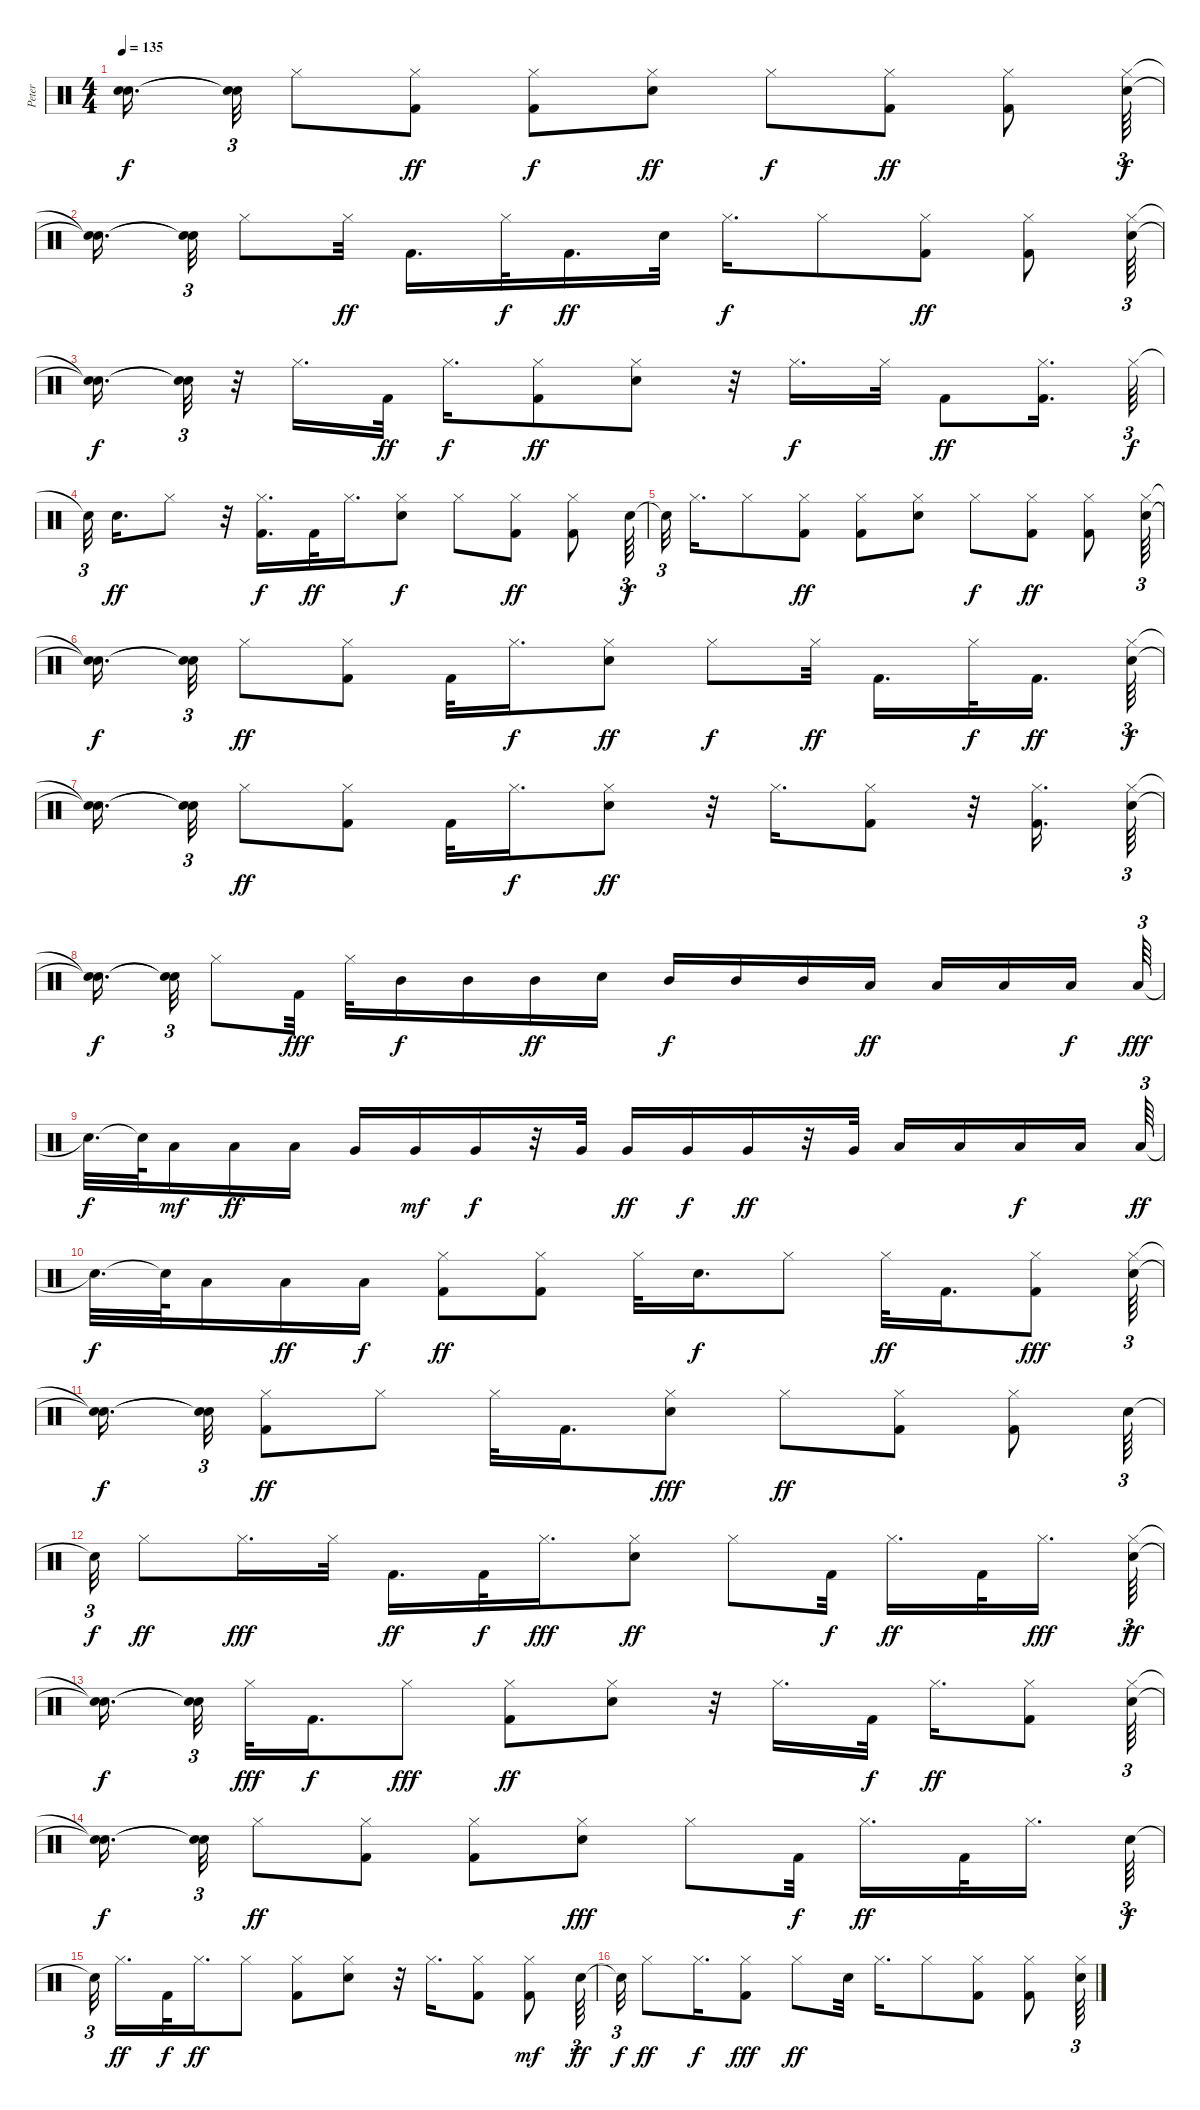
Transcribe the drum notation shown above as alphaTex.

\track ("Peter" "Peter") {instrument percussion}
\staff {score}
\articulation defaults
\ts (4 4)
\tempo 135
\clef neutral
\ks c
("Snare (hit)"{t} "Snare (hit)"{t}).16{d dy f} ("Snare (hit)"{t} "Snare (hit)"{t}).32{tu (3 2)} "Hi-Hat (closed)".8 ("Kick (hit) 2" "Hi-Hat (closed)").8{dy ff} ("Kick (hit) 2" "Hi-Hat (closed)").8{dy f} ("Hi-Hat (closed)" "Electric Snare (hit)").8{dy ff} "Hi-Hat (closed)".8{dy f} ("Hi-Hat (closed)" "Kick (hit) 2").8{dy ff} ("Hi-Hat (closed)" "Kick (hit) 2").8 ("Electric Snare (hit)" "Hi-Hat (closed)").64{tu (3 2) dy f} |
("Snare (hit)"{t} "Snare (hit)"{t}).16{d} ("Snare (hit)"{t} "Snare (hit)"{t}).32{tu (3 2)} "Hi-Hat (closed)".8 "Hi-Hat (closed)".32{dy ff} "Kick (hit) 2".16{d} "Hi-Hat (closed)".32{dy f} "Kick (hit) 2".16{d dy ff} "Electric Snare (hit)".32 "Hi-Hat (closed)".16{d dy f} "Hi-Hat (closed)".8 ("Kick (hit) 2" "Hi-Hat (closed)").8{dy ff} ("Kick (hit) 2" "Hi-Hat (closed)").8 ("Hi-Hat (closed)" "Electric Snare (hit)").64{tu (3 2)} |
("Snare (hit)"{t} "Snare (hit)"{t}).16{d dy f} ("Snare (hit)"{t} "Snare (hit)"{t}).32{tu (3 2)} r.32 "Hi-Hat (closed)".16{d} "Kick (hit) 2".32{dy ff} "Hi-Hat (closed)".16{d dy f} ("Kick (hit) 2" "Hi-Hat (closed)").8{dy ff} ("Electric Snare (hit)" "Hi-Hat (closed)").8 r.32 "Hi-Hat (closed)".16{d dy f} "Hi-Hat (closed)".32 "Kick (hit) 2".8{dy ff} ("Hi-Hat (closed)" "Kick (hit) 2").16{d} "Hi-Hat (closed)".64{tu (3 2) dy f} |
"Snare (hit)"{t}.32{tu (3 2)} "Electric Snare (hit)".16{d dy ff} "Hi-Hat (closed)".8 r.32 ("Hi-Hat (closed)" "Kick (hit) 2").16{d dy f} "Kick (hit) 2".32{dy ff} "Hi-Hat (closed)".16{d} ("Hi-Hat (closed)" "Electric Snare (hit)").8{dy f} "Hi-Hat (closed)".8 ("Kick (hit) 2" "Hi-Hat (closed)").8{dy ff} ("Kick (hit) 2" "Hi-Hat (closed)").8 "Electric Snare (hit)".64{tu (3 2) dy f} |
"Snare (hit)"{t}.32{tu (3 2)} "Hi-Hat (closed)".16{d} "Hi-Hat (closed)".8 ("Kick (hit) 2" "Hi-Hat (closed)").8{dy ff} ("Hi-Hat (closed)" "Kick (hit) 2").8 ("Hi-Hat (closed)" "Electric Snare (hit)").8 "Hi-Hat (closed)".8{dy f} ("Kick (hit) 2" "Hi-Hat (closed)").8{dy ff} ("Hi-Hat (closed)" "Kick (hit) 2").8 ("Electric Snare (hit)" "Hi-Hat (closed)").64{tu (3 2)} |
("Snare (hit)"{t} "Snare (hit)"{t}).16{d dy f} ("Snare (hit)"{t} "Snare (hit)"{t}).32{tu (3 2)} "Hi-Hat (closed)".8{dy ff} ("Kick (hit) 2" "Hi-Hat (closed)").8 "Kick (hit) 2".32 "Hi-Hat (closed)".16{d dy f} ("Hi-Hat (closed)" "Electric Snare (hit)").8{dy ff} "Hi-Hat (closed)".8{dy f} "Hi-Hat (closed)".32{dy ff} "Kick (hit) 2".16{d} "Hi-Hat (closed)".32{dy f} "Kick (hit) 2".16{d dy ff} ("Electric Snare (hit)" "Hi-Hat (closed)").64{tu (3 2) dy f} |
("Snare (hit)"{t} "Snare (hit)"{t}).16{d} ("Snare (hit)"{t} "Snare (hit)"{t}).32{tu (3 2)} "Hi-Hat (closed)".8{dy ff} ("Kick (hit) 2" "Hi-Hat (closed)").8 "Kick (hit) 2".32 "Hi-Hat (closed)".16{d dy f} ("Hi-Hat (closed)" "Electric Snare (hit)").8{dy ff} r.32 "Hi-Hat (closed)".16{d} ("Hi-Hat (closed)" "Kick (hit) 2").8 r.32 ("Hi-Hat (closed)" "Kick (hit) 2").16{d} ("Hi-Hat (closed)" "Electric Snare (hit)").64{tu (3 2)} |
("Snare (hit)"{t} "Snare (hit)"{t}).16{d dy f} ("Snare (hit)"{t} "Snare (hit)"{t}).32{tu (3 2)} "Hi-Hat (closed)".8 "Kick (hit) 2".32{dy fff} "Hi-Hat (closed)".32 "Mid Tom (hit)".16{dy f} "Mid Tom (hit)".16 "Mid Tom (hit)".16{dy ff} "Electric Snare (hit)".16 "Mid Tom (hit)".16{dy f} "Mid Tom (hit)".16 "Mid Tom (hit)".16 "Low Tom (hit)".16{dy ff} "Low Tom (hit)".16 "Low Tom (hit)".16 "Low Tom (hit)".16{dy f} "Low Tom (hit)".64{tu (3 2) dy fff} |
"Snare (hit)"{t}.32{d dy f} "Snare (hit)"{t}.64 "Low Tom (hit)".16{dy mf} "Low Tom (hit)".16{dy ff} "Low Tom (hit)".16 "Very Low Tom (hit)".16 "Very Low Tom (hit)".16{dy mf} "Very Low Tom (hit)".16{dy f} r.32 "Very Low Tom (hit)".32 "Very Low Tom (hit)".16{dy ff} "Very Low Tom (hit)".16{dy f} "Very Low Tom (hit)".16{dy ff} r.32 "Very Low Tom (hit)".32 "Low Floor Tom (hit)".16 "Low Floor Tom (hit)".16 "Low Floor Tom (hit)".16{dy f} "Low Floor Tom (hit)".16 "Low Floor Tom (hit)".64{tu (3 2) dy ff} |
"Snare (hit)"{t}.32{d dy f} "Snare (hit)"{t}.64 "Low Floor Tom (hit)".16 "Low Floor Tom (hit)".16{dy ff} "Low Floor Tom (hit)".16{dy f} ("Hi-Hat (closed)" "Kick (hit) 2").8{dy ff} ("Kick (hit) 2" "Hi-Hat (closed)").8 "Hi-Hat (closed)".32 "Electric Snare (hit)".16{d dy f} "Hi-Hat (closed)".8 "Hi-Hat (closed)".32{dy ff} "Kick (hit) 2".16{d} ("Kick (hit) 2" "Hi-Hat (closed)").8{dy fff} ("Hi-Hat (closed)" "Electric Snare (hit)").64{tu (3 2)} |
("Snare (hit)"{t} "Snare (hit)"{t}).16{d dy f} ("Snare (hit)"{t} "Snare (hit)"{t}).32{tu (3 2)} ("Hi-Hat (closed)" "Kick (hit) 2").8{dy ff} "Hi-Hat (closed)".8 "Hi-Hat (closed)".32 "Kick (hit) 2".16{d} ("Electric Snare (hit)" "Hi-Hat (closed)").8{dy fff} "Hi-Hat (closed)".8{dy ff} ("Hi-Hat (closed)" "Kick (hit) 2").8 ("Kick (hit) 2" "Hi-Hat (closed)").8 "Electric Snare (hit)".64{tu (3 2)} |
"Snare (hit)"{t}.32{tu (3 2) dy f} "Hi-Hat (closed)".8{dy ff} "Hi-Hat (closed)".16{d dy fff} "Hi-Hat (closed)".32 "Kick (hit) 2".16{d dy ff} "Kick (hit) 2".32{dy f} "Hi-Hat (closed)".16{d dy fff} ("Electric Snare (hit)" "Hi-Hat (closed)").8{dy ff} "Hi-Hat (closed)".8 "Kick (hit) 2".32{dy f} "Hi-Hat (closed)".16{d dy ff} "Kick (hit) 2".32 "Hi-Hat (closed)".16{d dy fff} ("Hi-Hat (closed)" "Electric Snare (hit)").64{tu (3 2) dy ff} |
("Snare (hit)"{t} "Snare (hit)"{t}).16{d dy f} ("Snare (hit)"{t} "Snare (hit)"{t}).32{tu (3 2)} "Hi-Hat (closed)".32{dy fff} "Kick (hit) 2".16{d dy f} "Hi-Hat (closed)".8{dy fff} ("Kick (hit) 2" "Hi-Hat (closed)").8{dy ff} ("Hi-Hat (closed)" "Electric Snare (hit)").8 r.32 "Hi-Hat (closed)".16{d} "Kick (hit) 2".32{dy f} "Hi-Hat (closed)".16{d dy ff} ("Hi-Hat (closed)" "Kick (hit) 2").8 ("Electric Snare (hit)" "Hi-Hat (closed)").64{tu (3 2)} |
("Snare (hit)"{t} "Snare (hit)"{t}).16{d dy f} ("Snare (hit)"{t} "Snare (hit)"{t}).32{tu (3 2)} "Hi-Hat (closed)".8{dy ff} ("Kick (hit) 2" "Hi-Hat (closed)").8 ("Hi-Hat (closed)" "Kick (hit) 2").8 ("Electric Snare (hit)" "Hi-Hat (closed)").8{dy fff} "Hi-Hat (closed)".8 "Kick (hit) 2".32{dy f} "Hi-Hat (closed)".16{d dy ff} "Kick (hit) 2".32 "Hi-Hat (closed)".16{d} "Electric Snare (hit)".64{tu (3 2) dy f} |
"Snare (hit)"{t}.32{tu (3 2)} "Hi-Hat (closed)".16{d dy ff} "Kick (hit) 2".32{dy f} "Hi-Hat (closed)".16{d dy ff} "Hi-Hat (closed)".8 ("Hi-Hat (closed)" "Kick (hit) 2").8 ("Electric Snare (hit)" "Hi-Hat (closed)").8 r.32 "Hi-Hat (closed)".16{d} ("Kick (hit) 2" "Hi-Hat (closed)").8 ("Kick (hit) 2" "Hi-Hat (closed)").8{dy mf} "Electric Snare (hit)".64{tu (3 2) dy ff} |
"Snare (hit)"{t}.32{tu (3 2) dy f} "Hi-Hat (closed)".8{dy ff} "Hi-Hat (closed)".16{d dy f} ("Hi-Hat (closed)" "Kick (hit) 2").8{dy fff} "Hi-Hat (closed)".8{dy ff} "Electric Snare (hit)".32 "Hi-Hat (closed)".16{d} "Hi-Hat (closed)".8 ("Hi-Hat (closed)" "Kick (hit) 2").8 ("Kick (hit) 2" "Hi-Hat (closed)").8 ("Electric Snare (hit)" "Hi-Hat (closed)").64{tu (3 2)}
